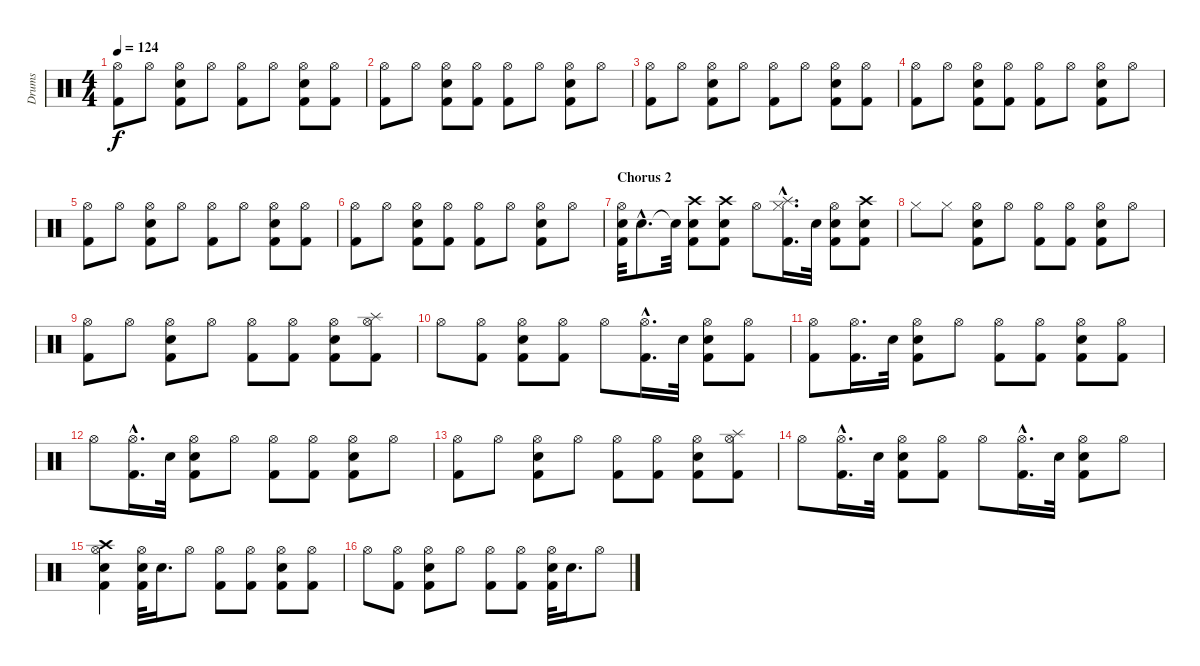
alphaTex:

\track ("Drums" "Drums") {instrument percussion}
\staff {score}
\articulation defaults
\ts (4 4)
\tempo 124
\clef neutral
\ks c
("Hi-Hat (open)" "Kick (hit) 2").8{dy f} "Hi-Hat (open)".8 ("Kick (hit) 2" "Hi-Hat (open)" "Snare (hit) 2").8 "Hi-Hat (open)".8 ("Hi-Hat (open)" "Kick (hit) 2").8 "Hi-Hat (open)".8 ("Kick (hit) 2" "Hi-Hat (open)" "Snare (hit) 2").8 ("Hi-Hat (open)" "Kick (hit) 2").8 |
("Hi-Hat (open)" "Kick (hit) 2").8 "Hi-Hat (open)".8 ("Snare (hit) 2" "Hi-Hat (open)" "Kick (hit) 2").8 ("Kick (hit) 2" "Hi-Hat (open)").8 ("Kick (hit) 2" "Hi-Hat (open)").8 "Hi-Hat (open)".8 ("Hi-Hat (open)" "Snare (hit) 2" "Kick (hit) 2").8 "Hi-Hat (open)".8 |
("Hi-Hat (open)" "Kick (hit) 2").8 "Hi-Hat (open)".8 ("Hi-Hat (open)" "Snare (hit) 2" "Kick (hit) 2").8 "Hi-Hat (open)".8 ("Hi-Hat (open)" "Kick (hit) 2").8 "Hi-Hat (open)".8 ("Kick (hit) 2" "Snare (hit) 2" "Hi-Hat (open)").8 ("Kick (hit) 2" "Hi-Hat (open)").8 |
("Hi-Hat (open)" "Kick (hit) 2").8 "Hi-Hat (open)".8 ("Hi-Hat (open)" "Snare (hit) 2" "Kick (hit) 2").8 ("Hi-Hat (open)" "Kick (hit) 2").8 ("Hi-Hat (open)" "Kick (hit) 2").8 "Hi-Hat (open)".8 ("Hi-Hat (open)" "Snare (hit) 2" "Kick (hit) 2").8 "Hi-Hat (open)".8 |
("Kick (hit) 2" "Hi-Hat (open)").8 "Hi-Hat (open)".8 ("Hi-Hat (open)" "Kick (hit) 2" "Snare (hit) 2").8 "Hi-Hat (open)".8 ("Hi-Hat (open)" "Kick (hit) 2").8 "Hi-Hat (open)".8 ("Snare (hit) 2" "Kick (hit) 2" "Hi-Hat (open)").8 ("Hi-Hat (open)" "Kick (hit) 2").8 |
("Kick (hit) 2" "Hi-Hat (open)").8 "Hi-Hat (open)".8 ("Kick (hit) 2" "Snare (hit) 2" "Hi-Hat (open)").8 ("Kick (hit) 2" "Hi-Hat (open)").8 ("Hi-Hat (open)" "Kick (hit) 2").8 "Hi-Hat (open)".8 ("Snare (hit) 2" "Kick (hit) 2" "Hi-Hat (open)").8 "Hi-Hat (open)".8 |
\section ("" "Chorus 2")
("Snare (hit) 2" "Kick (hit) 2" "Hi-Hat (open)").32 "Snare (hit) 2"{hac}.8{d} "Snare (hit)"{t}.32 ("Kick (hit) 2" "Crash high (hit)" "Snare (hit) 2").8 ("Kick (hit) 2" "Snare (hit) 2" "Crash high (hit)").8 "Hi-Hat (open)".8 ("Kick (hit) 2"{hac} "Splash (hit)" "Hi-Hat (closed)").16{d} "Snare (hit) 2".32 ("Kick (hit) 2" "Snare (hit) 2" "Hi-Hat (open)").8 ("Crash high (hit)" "Kick (hit) 2" "Snare (hit) 2").8 |
"Hi-Hat (closed)".8 "Hi-Hat (closed)".8 ("Kick (hit) 2" "Snare (hit) 2" "Hi-Hat (open)").8 "Hi-Hat (open)".8 ("Kick (hit) 2" "Hi-Hat (open)").8 ("Kick (hit) 2" "Hi-Hat (open)").8 ("Hi-Hat (open)" "Kick (hit) 2" "Snare (hit) 2").8 "Hi-Hat (open)".8 |
("Kick (hit) 2" "Hi-Hat (open)").8 "Hi-Hat (open)".8 ("Kick (hit) 2" "Hi-Hat (open)" "Snare (hit) 2").8 "Hi-Hat (open)".8 ("Kick (hit) 2" "Hi-Hat (open)").8 ("Kick (hit) 2" "Hi-Hat (open)").8 ("Kick (hit) 2" "Hi-Hat (open)" "Snare (hit) 2").8 ("Hi-Hat (open)" "Kick (hit) 2" "Splash (hit)").8 |
"Hi-Hat (open)".8 ("Hi-Hat (open)" "Kick (hit) 2").8 ("Kick (hit) 2" "Hi-Hat (open)" "Snare (hit) 2").8 ("Kick (hit) 2" "Hi-Hat (open)").8 "Hi-Hat (open)".8 ("Hi-Hat (open)" "Kick (hit) 2"{hac}).16{d} "Snare (hit) 2".32 ("Kick (hit) 2" "Hi-Hat (open)" "Snare (hit) 2").8 ("Kick (hit) 2" "Hi-Hat (open)").8 |
("Kick (hit) 2" "Hi-Hat (open)").8 ("Kick (hit) 2" "Hi-Hat (open)").16{d} "Snare (hit) 2".32 ("Kick (hit) 2" "Hi-Hat (open)" "Snare (hit) 2").8 "Hi-Hat (open)".8 ("Kick (hit) 2" "Hi-Hat (open)").8 ("Kick (hit) 2" "Hi-Hat (open)").8 ("Snare (hit) 2" "Hi-Hat (open)" "Kick (hit) 2").8 ("Kick (hit) 2" "Hi-Hat (open)").8 |
"Hi-Hat (open)".8 ("Hi-Hat (open)" "Kick (hit) 2"{hac}).16{d} "Snare (hit) 2".32 ("Kick (hit) 2" "Hi-Hat (open)" "Snare (hit) 2").8 "Hi-Hat (open)".8 ("Kick (hit) 2" "Hi-Hat (open)").8 ("Kick (hit) 2" "Hi-Hat (open)").8 ("Kick (hit) 2" "Hi-Hat (open)" "Snare (hit) 2").8 "Hi-Hat (open)".8 |
("Kick (hit) 2" "Hi-Hat (open)").8 "Hi-Hat (open)".8 ("Kick (hit) 2" "Snare (hit) 2" "Hi-Hat (open)").8 "Hi-Hat (open)".8 ("Kick (hit) 2" "Hi-Hat (open)").8 ("Hi-Hat (open)" "Kick (hit) 2").8 ("Kick (hit) 2" "Hi-Hat (open)" "Snare (hit) 2").8 ("Hi-Hat (open)" "Kick (hit) 2" "Splash (hit)").8 |
"Hi-Hat (open)".8 ("Kick (hit) 2"{hac} "Hi-Hat (open)").16{d} "Snare (hit) 2".32 ("Hi-Hat (open)" "Snare (hit) 2" "Kick (hit) 2").8 ("Kick (hit) 2" "Hi-Hat (open)").8 "Hi-Hat (open)".8 ("Kick (hit) 2"{hac} "Hi-Hat (open)").16{d} "Snare (hit) 2".32 ("Hi-Hat (open)" "Kick (hit) 2" "Snare (hit) 2").8 "Hi-Hat (open)".8 |
("Hi-Hat (open)" "Crash high (hit)" "Snare (hit) 2" "Kick (hit) 2").4 ("Hi-Hat (open)" "Snare (hit) 2" "Kick (hit) 2").32 "Snare (hit) 2".16{d} "Hi-Hat (open)".8 ("Hi-Hat (open)" "Kick (hit) 2").8 ("Kick (hit) 2" "Hi-Hat (open)").8 ("Hi-Hat (open)" "Snare (hit) 2" "Kick (hit) 2").8 ("Kick (hit) 2" "Hi-Hat (open)").8 |
"Hi-Hat (open)".8 ("Kick (hit) 2" "Hi-Hat (open)").8 ("Hi-Hat (open)" "Snare (hit) 2" "Kick (hit) 2").8 "Hi-Hat (open)".8 ("Hi-Hat (open)" "Kick (hit) 2").8 ("Kick (hit) 2" "Hi-Hat (open)").8 ("Snare (hit) 2" "Hi-Hat (open)" "Kick (hit) 2").32 "Snare (hit) 2".16{d} "Hi-Hat (open)".8
